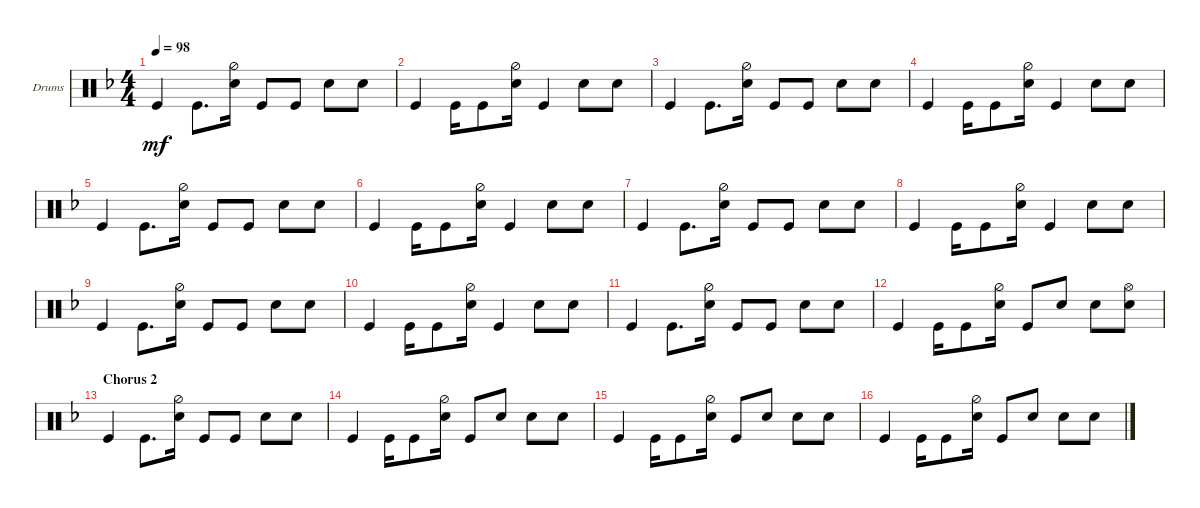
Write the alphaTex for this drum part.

\defaultSystemsLayout 4
\bracketExtendMode groupsimilarinstruments
\firstSystemTrackNameOrientation horizontal
\otherSystemsTrackNameOrientation horizontal
\track ("Drumkit" "Drums") {instrument percussion}
\staff {score}
\articulation defaults
\ts (4 4)
\tempo 98
\clef neutral
\scale
0.333333
\ks dminor "Kick (hit)".4{dy mf} "Kick (hit)".8{d}
("Snare (hit) 2" "Hi-Hat (half)").16 "Kick (hit)".8 "Kick (hit)".8 "Snare (hit) 2".8 "Snare (hit) 2".8 |
\scale
0.333333 "Kick (hit)".4 "Kick (hit)".16 "Kick (hit)".8 ("Snare (hit) 2" "Hi-Hat (half)").16 "Kick (hit)".4 "Snare (hit) 2".8 "Snare (hit) 2".8 |
\scale
0.333333 "Kick (hit)".4 "Kick (hit)".8{d} ("Snare (hit) 2" "Hi-Hat (half)").16 "Kick (hit)".8 "Kick (hit)".8 "Snare (hit) 2".8 "Snare (hit) 2".8 |
\scale
0.333333 "Kick (hit)".4 "Kick (hit)".16 "Kick (hit)".8 ("Snare (hit) 2" "Hi-Hat (half)").16 "Kick (hit)".4 "Snare (hit) 2".8 "Snare (hit) 2".8 |
\scale
0.333333 "Kick (hit)".4 "Kick (hit)".8{d} ("Snare (hit) 2" "Hi-Hat (half)").16 "Kick (hit)".8 "Kick (hit)".8 "Snare (hit) 2".8 "Snare (hit) 2".8 |
\scale
0.333333 "Kick (hit)".4 "Kick (hit)".16 "Kick (hit)".8 ("Snare (hit) 2" "Hi-Hat (half)").16 "Kick (hit)".4 "Snare (hit) 2".8 "Snare (hit) 2".8 |
\scale
0.333333 "Kick (hit)".4 "Kick (hit)".8{d} ("Snare (hit) 2" "Hi-Hat (half)").16 "Kick (hit)".8 "Kick (hit)".8 "Snare (hit) 2".8 "Snare (hit) 2".8 |
\scale
0.333333 "Kick (hit)".4 "Kick (hit)".16 "Kick (hit)".8 ("Snare (hit) 2" "Hi-Hat (half)").16 "Kick (hit)".4 "Snare (hit) 2".8 "Snare (hit) 2".8 |
\scale
0.333333 "Kick (hit)".4 "Kick (hit)".8{d} ("Snare (hit) 2" "Hi-Hat (half)").16 "Kick (hit)".8 "Kick (hit)".8 "Snare (hit) 2".8 "Snare (hit) 2".8 |
\scale
0.333333 "Kick (hit)".4 "Kick (hit)".16 "Kick (hit)".8 ("Snare (hit) 2" "Hi-Hat (half)").16 "Kick (hit)".4 "Snare (hit) 2".8 "Snare (hit) 2".8 |
\scale
0.333333 "Kick (hit)".4 "Kick (hit)".8{d} ("Snare (hit) 2" "Hi-Hat (half)").16 "Kick (hit)".8 "Kick (hit)".8 "Snare (hit) 2".8 "Snare (hit) 2".8 |
\scale
0.333333 "Kick (hit)".4 "Kick (hit)".16 "Kick (hit)".8 ("Snare (hit) 2" "Hi-Hat (half)").16 "Kick (hit)".8 "Snare (hit) 2".8 "Snare (hit) 2".8 ("Snare (hit) 2" "Hi-Hat (open)").8 |
\section ("" "Chorus 2")
\scale
0.333333 "Kick (hit)".4 "Kick (hit)".8{d} ("Snare (hit) 2" "Hi-Hat (half)").16 "Kick (hit)".8 "Kick (hit)".8 "Snare (hit) 2".8 "Snare (hit) 2".8 |
\scale
0.333333 "Kick (hit)".4 "Kick (hit)".16 "Kick (hit)".8 ("Snare (hit) 2" "Hi-Hat (half)").16 "Kick (hit)".8 "Snare (hit) 2".8 "Snare (hit) 2".8 "Snare (hit) 2".8 |
\scale
0.333333 "Kick (hit)".4 "Kick (hit)".16 "Kick (hit)".8 ("Snare (hit) 2" "Hi-Hat (half)").16 "Kick (hit)".8 "Snare (hit) 2".8 "Snare (hit) 2".8 "Snare (hit) 2".8 |
\scale
0.333333 "Kick (hit)".4 "Kick (hit)".16 "Kick (hit)".8 ("Snare (hit) 2" "Hi-Hat (half)").16 "Kick (hit)".8 "Snare (hit) 2".8 "Snare (hit) 2".8 "Snare (hit) 2".8
